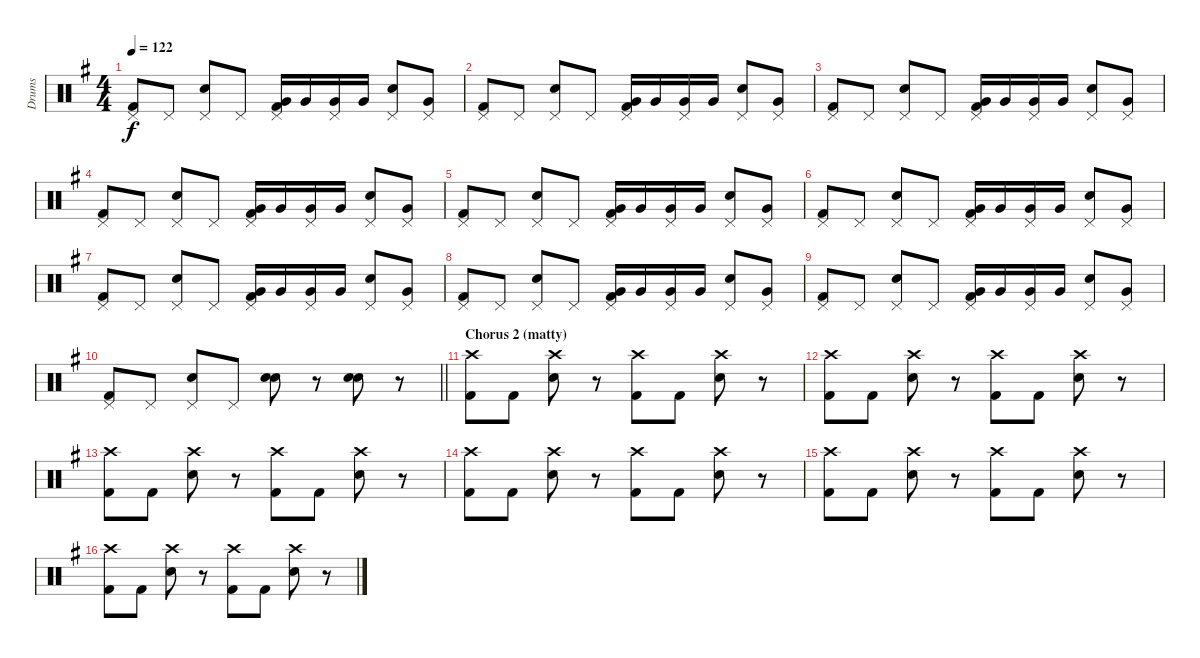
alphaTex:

\track ("Drums" "Drums") {instrument percussion bank 127}
\staff {score}
\articulation defaults
\ts (4 4)
\tempo 122
\clef neutral
\ks eminor
("Pedal Hi-Hat (hit)" "Kick (hit) 2").8{dy f} "Pedal Hi-Hat (hit)".8 ("Pedal Hi-Hat (hit)" "Snare (hit) 2").8 "Pedal Hi-Hat (hit)".8 ("Pedal Hi-Hat (hit)" "Very Low Tom (hit)" "Kick (hit) 2").16 "Very Low Tom (hit)".16 ("Pedal Hi-Hat (hit)" "Very Low Tom (hit)").16 "Very Low Tom (hit)".16 ("Pedal Hi-Hat (hit)" "Snare (hit) 2").8 ("Pedal Hi-Hat (hit)" "Very Low Tom (hit)").8 |
("Pedal Hi-Hat (hit)" "Kick (hit) 2").8 "Pedal Hi-Hat (hit)".8 ("Pedal Hi-Hat (hit)" "Snare (hit) 2").8 "Pedal Hi-Hat (hit)".8 ("Pedal Hi-Hat (hit)" "Very Low Tom (hit)" "Kick (hit) 2").16 "Very Low Tom (hit)".16 ("Pedal Hi-Hat (hit)" "Very Low Tom (hit)").16 "Very Low Tom (hit)".16 ("Pedal Hi-Hat (hit)" "Snare (hit) 2").8 ("Pedal Hi-Hat (hit)" "Very Low Tom (hit)").8 |
("Pedal Hi-Hat (hit)" "Kick (hit) 2").8 "Pedal Hi-Hat (hit)".8 ("Pedal Hi-Hat (hit)" "Snare (hit) 2").8 "Pedal Hi-Hat (hit)".8 ("Pedal Hi-Hat (hit)" "Very Low Tom (hit)" "Kick (hit) 2").16 "Very Low Tom (hit)".16 ("Pedal Hi-Hat (hit)" "Very Low Tom (hit)").16 "Very Low Tom (hit)".16 ("Pedal Hi-Hat (hit)" "Snare (hit) 2").8 ("Pedal Hi-Hat (hit)" "Very Low Tom (hit)").8 |
("Pedal Hi-Hat (hit)" "Kick (hit) 2").8 "Pedal Hi-Hat (hit)".8 ("Pedal Hi-Hat (hit)" "Snare (hit) 2").8 "Pedal Hi-Hat (hit)".8 ("Pedal Hi-Hat (hit)" "Very Low Tom (hit)" "Kick (hit) 2").16 "Very Low Tom (hit)".16 ("Pedal Hi-Hat (hit)" "Very Low Tom (hit)").16 "Very Low Tom (hit)".16 ("Pedal Hi-Hat (hit)" "Snare (hit) 2").8 ("Pedal Hi-Hat (hit)" "Very Low Tom (hit)").8 |
("Pedal Hi-Hat (hit)" "Kick (hit) 2").8 "Pedal Hi-Hat (hit)".8 ("Pedal Hi-Hat (hit)" "Snare (hit) 2").8 "Pedal Hi-Hat (hit)".8 ("Pedal Hi-Hat (hit)" "Very Low Tom (hit)" "Kick (hit) 2").16 "Very Low Tom (hit)".16 ("Pedal Hi-Hat (hit)" "Very Low Tom (hit)").16 "Very Low Tom (hit)".16 ("Pedal Hi-Hat (hit)" "Snare (hit) 2").8 ("Pedal Hi-Hat (hit)" "Very Low Tom (hit)").8 |
("Pedal Hi-Hat (hit)" "Kick (hit) 2").8 "Pedal Hi-Hat (hit)".8 ("Pedal Hi-Hat (hit)" "Snare (hit) 2").8 "Pedal Hi-Hat (hit)".8 ("Pedal Hi-Hat (hit)" "Very Low Tom (hit)" "Kick (hit) 2").16 "Very Low Tom (hit)".16 ("Pedal Hi-Hat (hit)" "Very Low Tom (hit)").16 "Very Low Tom (hit)".16 ("Pedal Hi-Hat (hit)" "Snare (hit) 2").8 ("Pedal Hi-Hat (hit)" "Very Low Tom (hit)").8 |
("Pedal Hi-Hat (hit)" "Kick (hit) 2").8 "Pedal Hi-Hat (hit)".8 ("Pedal Hi-Hat (hit)" "Snare (hit) 2").8 "Pedal Hi-Hat (hit)".8 ("Pedal Hi-Hat (hit)" "Very Low Tom (hit)" "Kick (hit) 2").16 "Very Low Tom (hit)".16 ("Pedal Hi-Hat (hit)" "Very Low Tom (hit)").16 "Very Low Tom (hit)".16 ("Pedal Hi-Hat (hit)" "Snare (hit) 2").8 ("Pedal Hi-Hat (hit)" "Very Low Tom (hit)").8 |
("Pedal Hi-Hat (hit)" "Kick (hit) 2").8 "Pedal Hi-Hat (hit)".8 ("Pedal Hi-Hat (hit)" "Snare (hit) 2").8 "Pedal Hi-Hat (hit)".8 ("Pedal Hi-Hat (hit)" "Very Low Tom (hit)" "Kick (hit) 2").16 "Very Low Tom (hit)".16 ("Pedal Hi-Hat (hit)" "Very Low Tom (hit)").16 "Very Low Tom (hit)".16 ("Pedal Hi-Hat (hit)" "Snare (hit) 2").8 ("Pedal Hi-Hat (hit)" "Very Low Tom (hit)").8 |
("Pedal Hi-Hat (hit)" "Kick (hit) 2").8 "Pedal Hi-Hat (hit)".8 ("Pedal Hi-Hat (hit)" "Snare (hit) 2").8 "Pedal Hi-Hat (hit)".8 ("Pedal Hi-Hat (hit)" "Very Low Tom (hit)" "Kick (hit) 2").16 "Very Low Tom (hit)".16 ("Pedal Hi-Hat (hit)" "Very Low Tom (hit)").16 "Very Low Tom (hit)".16 ("Pedal Hi-Hat (hit)" "Snare (hit) 2").8 ("Pedal Hi-Hat (hit)" "Very Low Tom (hit)").8 |
\barLineRight lightlight
("Pedal Hi-Hat (hit)" "Kick (hit) 2").8 "Pedal Hi-Hat (hit)".8 ("Pedal Hi-Hat (hit)" "Snare (hit) 2").8 "Pedal Hi-Hat (hit)".8 ("Snare (hit) 2" "Snare (hit) 2").8 r.8 ("Snare (hit) 2" "Snare (hit) 2").8 r.8 |
\section ("" "Chorus 2 (matty)")
("Crash high (hit)" "Kick (hit) 2").8 "Kick (hit) 2".8 ("Crash high (hit)" "Snare (hit) 2").8 r.8 ("Crash high (hit)" "Kick (hit) 2").8 "Kick (hit) 2".8 ("Crash high (hit)" "Snare (hit) 2").8 r.8 |
("Crash high (hit)" "Kick (hit) 2").8 "Kick (hit) 2".8 ("Crash high (hit)" "Snare (hit) 2").8 r.8 ("Crash high (hit)" "Kick (hit) 2").8 "Kick (hit) 2".8 ("Crash high (hit)" "Snare (hit) 2").8 r.8 |
("Crash high (hit)" "Kick (hit) 2").8 "Kick (hit) 2".8 ("Crash high (hit)" "Snare (hit) 2").8 r.8 ("Crash high (hit)" "Kick (hit) 2").8 "Kick (hit) 2".8 ("Crash high (hit)" "Snare (hit) 2").8 r.8 |
("Crash high (hit)" "Kick (hit) 2").8 "Kick (hit) 2".8 ("Crash high (hit)" "Snare (hit) 2").8 r.8 ("Crash high (hit)" "Kick (hit) 2").8 "Kick (hit) 2".8 ("Crash high (hit)" "Snare (hit) 2").8 r.8 |
("Crash high (hit)" "Kick (hit) 2").8 "Kick (hit) 2".8 ("Crash high (hit)" "Snare (hit) 2").8 r.8 ("Crash high (hit)" "Kick (hit) 2").8 "Kick (hit) 2".8 ("Crash high (hit)" "Snare (hit) 2").8 r.8 |
("Crash high (hit)" "Kick (hit) 2").8 "Kick (hit) 2".8 ("Crash high (hit)" "Snare (hit) 2").8 r.8 ("Crash high (hit)" "Kick (hit) 2").8 "Kick (hit) 2".8 ("Crash high (hit)" "Snare (hit) 2").8 r.8
